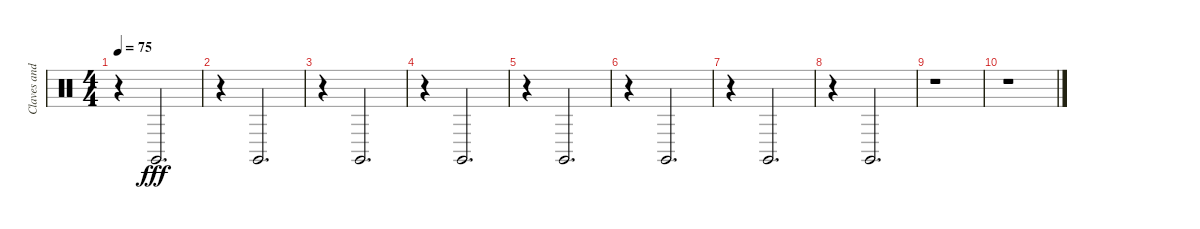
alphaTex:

\track ("Claves and Surdo's" "Claves and") {instrument percussion}
\staff {score}
\articulation defaults
\ts (4 4)
\tempo 75
\clef neutral
\ks c
r.4{dy ff} "Claves (hit)".2{d dy fff} |
r.4 "Claves (hit)".2{d} |
r.4 "Claves (hit)".2{d} |
r.4 "Claves (hit)".2{d} |
r.4 "Claves (hit)".2{d} |
r.4 "Claves (hit)".2{d} |
r.4 "Claves (hit)".2{d} |
r.4 "Claves (hit)".2{d} |
r.1 |
r.1
